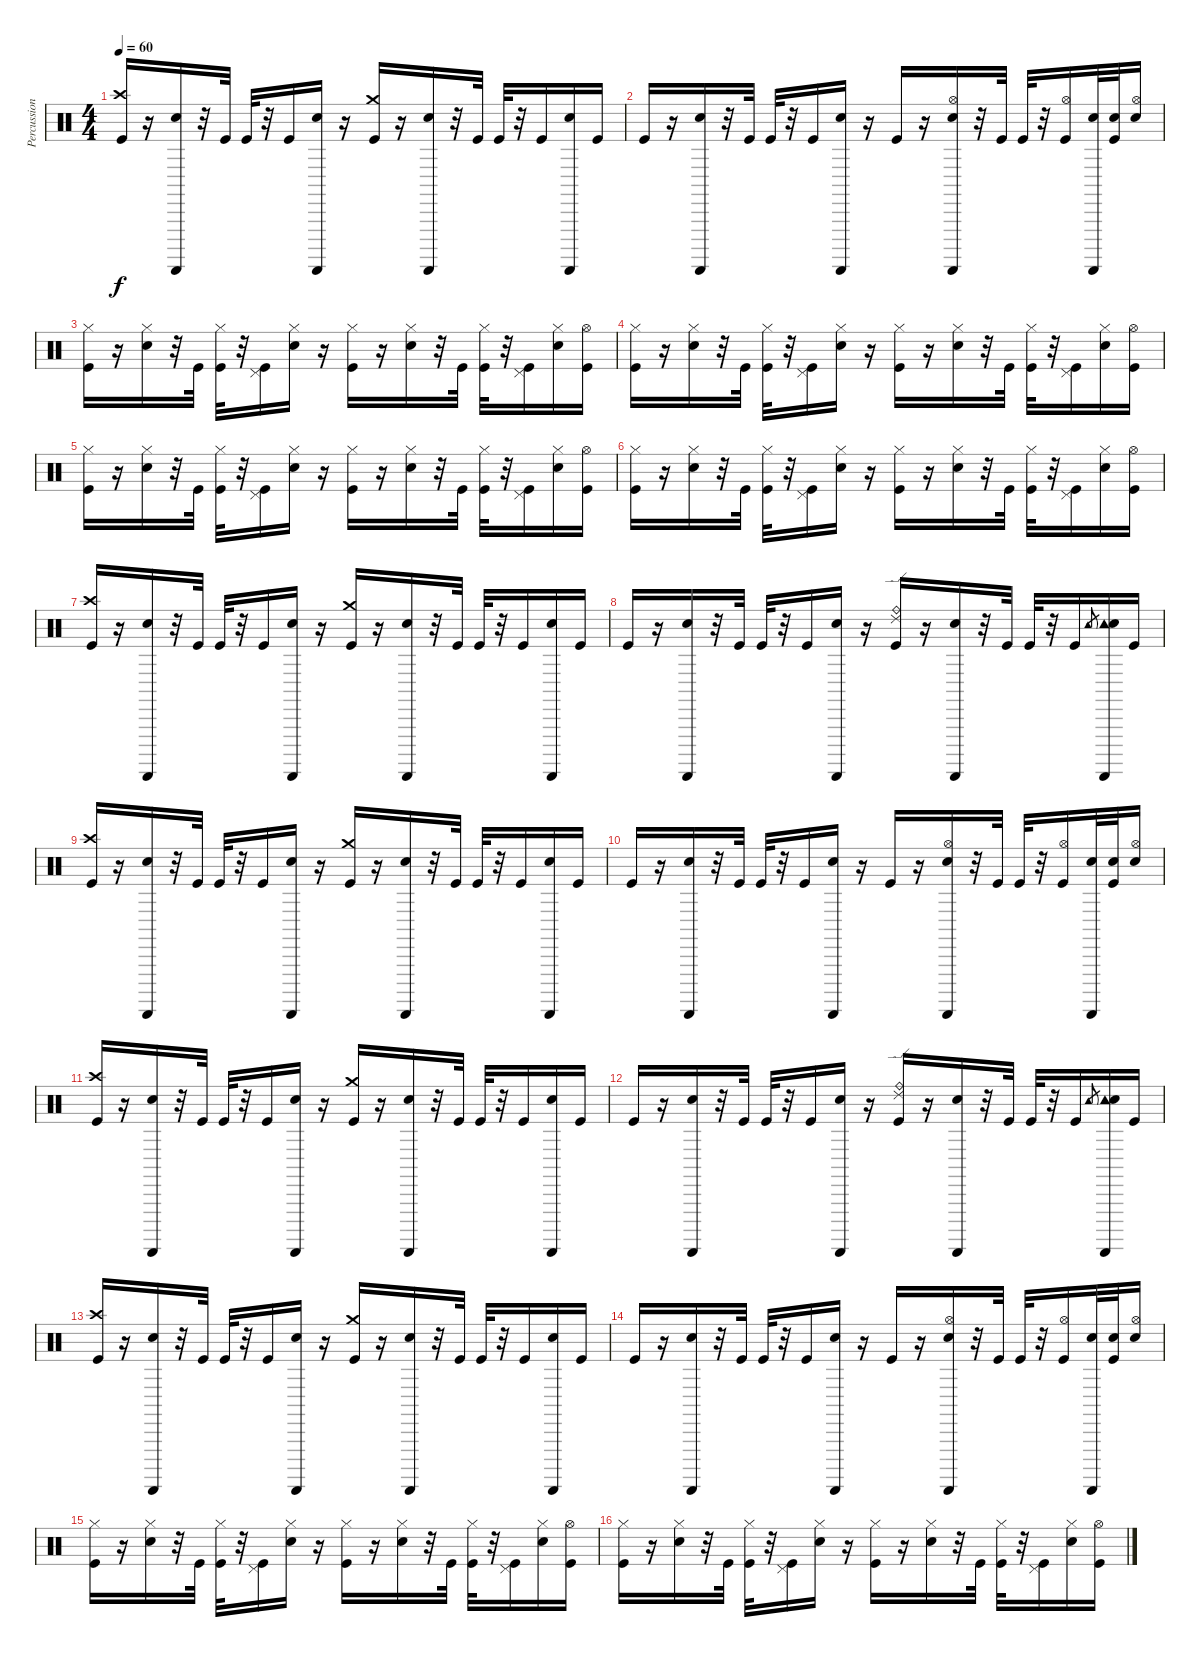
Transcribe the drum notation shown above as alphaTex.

\track ("Percussions" "Percussion") {instrument percussion}
\staff {score}
\articulation defaults
\ts (4 4)
\tempo 60
\clef neutral
\ks c
("Crash high (hit)" "Kick (hit)").16{dy f} r.16 ("Guiro (scrap-return)" "Electric Snare (hit)").16 r.32 "Kick (hit)".32 "Kick (hit)".32 r.32 "Kick (hit)".16 ("Guiro (scrap-return)" "Electric Snare (hit)").16 r.16 ("Crash medium (hit)" "Kick (hit)").16 r.16 ("Guiro (scrap-return)" "Electric Snare (hit)").16 r.32 "Kick (hit)".32 "Kick (hit)".32 r.32 "Kick (hit)".16 ("Guiro (scrap-return)" "Electric Snare (hit)").16 "Kick (hit)".16 |
"Kick (hit)".16 r.16 ("Guiro (scrap-return)" "Electric Snare (hit)").16 r.32 "Kick (hit)".32 "Kick (hit)".32 r.32 "Kick (hit)".16 ("Guiro (scrap-return)" "Electric Snare (hit)").16 r.16 "Kick (hit)".16 r.16 ("Hi-Hat (open)" "Guiro (scrap-return)" "Electric Snare (hit)").16 r.32 "Kick (hit)".32 "Kick (hit)".32 r.32 ("Hi-Hat (open)" "Kick (hit)").16 ("Guiro (scrap-return)" "Electric Snare (hit)").32 ("Electric Snare (hit)" "Kick (hit)").32 ("Hi-Hat (open)" "Snare (hit) 2").16 |
("Hi-Hat (closed)" "Kick (hit)").16 r.16 ("Hi-Hat (closed)" "Electric Snare (hit)").16 r.32 "Kick (hit)".32 ("Hi-Hat (closed)" "Kick (hit)").32 r.32 ("Pedal Hi-Hat (hit)" "Kick (hit)").16 ("Hi-Hat (closed)" "Electric Snare (hit)").16 r.16 ("Hi-Hat (closed)" "Kick (hit)").16 r.16 ("Hi-Hat (closed)" "Electric Snare (hit)").16 r.32 "Kick (hit)".32 ("Hi-Hat (closed)" "Kick (hit)").32 r.32 ("Pedal Hi-Hat (hit)" "Kick (hit)").16 ("Hi-Hat (closed)" "Electric Snare (hit)").16 ("Hi-Hat (open)" "Kick (hit)").16 |
("Hi-Hat (closed)" "Kick (hit)").16 r.16 ("Hi-Hat (closed)" "Electric Snare (hit)").16 r.32 "Kick (hit)".32 ("Hi-Hat (closed)" "Kick (hit)").32 r.32 ("Pedal Hi-Hat (hit)" "Kick (hit)").16 ("Hi-Hat (closed)" "Electric Snare (hit)").16 r.16 ("Hi-Hat (closed)" "Kick (hit)").16 r.16 ("Hi-Hat (closed)" "Electric Snare (hit)").16 r.32 "Kick (hit)".32 ("Hi-Hat (closed)" "Kick (hit)").32 r.32 ("Pedal Hi-Hat (hit)" "Kick (hit)").16 ("Hi-Hat (closed)" "Electric Snare (hit)").16 ("Hi-Hat (open)" "Kick (hit)").16 |
("Hi-Hat (closed)" "Kick (hit)").16 r.16 ("Hi-Hat (closed)" "Electric Snare (hit)").16 r.32 "Kick (hit)".32 ("Hi-Hat (closed)" "Kick (hit)").32 r.32 ("Pedal Hi-Hat (hit)" "Kick (hit)").16 ("Hi-Hat (closed)" "Electric Snare (hit)").16 r.16 ("Hi-Hat (closed)" "Kick (hit)").16 r.16 ("Hi-Hat (closed)" "Electric Snare (hit)").16 r.32 "Kick (hit)".32 ("Hi-Hat (closed)" "Kick (hit)").32 r.32 ("Pedal Hi-Hat (hit)" "Kick (hit)").16 ("Hi-Hat (closed)" "Electric Snare (hit)").16 ("Hi-Hat (open)" "Kick (hit)").16 |
("Hi-Hat (closed)" "Kick (hit)").16 r.16 ("Hi-Hat (closed)" "Electric Snare (hit)").16 r.32 "Kick (hit)".32 ("Hi-Hat (closed)" "Kick (hit)").32 r.32 ("Pedal Hi-Hat (hit)" "Kick (hit)").16 ("Hi-Hat (closed)" "Electric Snare (hit)").16 r.16 ("Hi-Hat (closed)" "Kick (hit)").16 r.16 ("Hi-Hat (closed)" "Electric Snare (hit)").16 r.32 "Kick (hit)".32 ("Hi-Hat (closed)" "Kick (hit)").32 r.32 ("Pedal Hi-Hat (hit)" "Kick (hit)").16 ("Hi-Hat (closed)" "Electric Snare (hit)").16 ("Hi-Hat (open)" "Kick (hit)").16 |
("Crash high (hit)" "Kick (hit)").16 r.16 ("Guiro (scrap-return)" "Electric Snare (hit)").16 r.32 "Kick (hit)".32 "Kick (hit)".32 r.32 "Kick (hit)".16 ("Guiro (scrap-return)" "Electric Snare (hit)").16 r.16 ("Crash medium (hit)" "Kick (hit)").16 r.16 ("Guiro (scrap-return)" "Electric Snare (hit)").16 r.32 "Kick (hit)".32 "Kick (hit)".32 r.32 "Kick (hit)".16 ("Guiro (scrap-return)" "Electric Snare (hit)").16 "Kick (hit)".16 |
"Kick (hit)".16 r.16 ("Guiro (scrap-return)" "Electric Snare (hit)").16 r.32 "Kick (hit)".32 "Kick (hit)".32 r.32 "Kick (hit)".16 ("Guiro (scrap-return)" "Electric Snare (hit)").16 r.16 ("Ride (bell)" "Ride (edge) 2" "Kick (hit)").16 r.16 ("Guiro (scrap-return)" "Electric Snare (hit)").16 r.32 "Kick (hit)".32 "Kick (hit)".32 r.32 "Kick (hit)".16 "Tambourine (hit)".8{gr} ("Tambourine (hit)" "Guiro (scrap-return)" "Electric Snare (hit)").16 "Kick (hit)".16 |
("Crash high (hit)" "Kick (hit)").16 r.16 ("Guiro (scrap-return)" "Electric Snare (hit)").16 r.32 "Kick (hit)".32 "Kick (hit)".32 r.32 "Kick (hit)".16 ("Guiro (scrap-return)" "Electric Snare (hit)").16 r.16 ("Crash medium (hit)" "Kick (hit)").16 r.16 ("Guiro (scrap-return)" "Electric Snare (hit)").16 r.32 "Kick (hit)".32 "Kick (hit)".32 r.32 "Kick (hit)".16 ("Guiro (scrap-return)" "Electric Snare (hit)").16 "Kick (hit)".16 |
"Kick (hit)".16 r.16 ("Guiro (scrap-return)" "Electric Snare (hit)").16 r.32 "Kick (hit)".32 "Kick (hit)".32 r.32 "Kick (hit)".16 ("Guiro (scrap-return)" "Electric Snare (hit)").16 r.16 "Kick (hit)".16 r.16 ("Hi-Hat (open)" "Guiro (scrap-return)" "Electric Snare (hit)").16 r.32 "Kick (hit)".32 "Kick (hit)".32 r.32 ("Hi-Hat (open)" "Kick (hit)").16 ("Guiro (scrap-return)" "Electric Snare (hit)").32 ("Electric Snare (hit)" "Kick (hit)").32 ("Hi-Hat (open)" "Snare (hit) 2").16 |
("Crash high (hit)" "Kick (hit)").16 r.16 ("Guiro (scrap-return)" "Electric Snare (hit)").16 r.32 "Kick (hit)".32 "Kick (hit)".32 r.32 "Kick (hit)".16 ("Guiro (scrap-return)" "Electric Snare (hit)").16 r.16 ("Crash medium (hit)" "Kick (hit)").16 r.16 ("Guiro (scrap-return)" "Electric Snare (hit)").16 r.32 "Kick (hit)".32 "Kick (hit)".32 r.32 "Kick (hit)".16 ("Guiro (scrap-return)" "Electric Snare (hit)").16 "Kick (hit)".16 |
"Kick (hit)".16 r.16 ("Guiro (scrap-return)" "Electric Snare (hit)").16 r.32 "Kick (hit)".32 "Kick (hit)".32 r.32 "Kick (hit)".16 ("Guiro (scrap-return)" "Electric Snare (hit)").16 r.16 ("Ride (bell)" "Ride (edge) 2" "Kick (hit)").16 r.16 ("Guiro (scrap-return)" "Electric Snare (hit)").16 r.32 "Kick (hit)".32 "Kick (hit)".32 r.32 "Kick (hit)".16 "Tambourine (hit)".8{gr} ("Tambourine (hit)" "Guiro (scrap-return)" "Electric Snare (hit)").16 "Kick (hit)".16 |
("Crash high (hit)" "Kick (hit)").16 r.16 ("Guiro (scrap-return)" "Electric Snare (hit)").16 r.32 "Kick (hit)".32 "Kick (hit)".32 r.32 "Kick (hit)".16 ("Guiro (scrap-return)" "Electric Snare (hit)").16 r.16 ("Crash medium (hit)" "Kick (hit)").16 r.16 ("Guiro (scrap-return)" "Electric Snare (hit)").16 r.32 "Kick (hit)".32 "Kick (hit)".32 r.32 "Kick (hit)".16 ("Guiro (scrap-return)" "Electric Snare (hit)").16 "Kick (hit)".16 |
"Kick (hit)".16 r.16 ("Guiro (scrap-return)" "Electric Snare (hit)").16 r.32 "Kick (hit)".32 "Kick (hit)".32 r.32 "Kick (hit)".16 ("Guiro (scrap-return)" "Electric Snare (hit)").16 r.16 "Kick (hit)".16 r.16 ("Hi-Hat (open)" "Guiro (scrap-return)" "Electric Snare (hit)").16 r.32 "Kick (hit)".32 "Kick (hit)".32 r.32 ("Hi-Hat (open)" "Kick (hit)").16 ("Guiro (scrap-return)" "Electric Snare (hit)").32 ("Electric Snare (hit)" "Kick (hit)").32 ("Hi-Hat (open)" "Snare (hit) 2").16 |
("Hi-Hat (closed)" "Kick (hit)").16 r.16 ("Hi-Hat (closed)" "Electric Snare (hit)").16 r.32 "Kick (hit)".32 ("Hi-Hat (closed)" "Kick (hit)").32 r.32 ("Pedal Hi-Hat (hit)" "Kick (hit)").16 ("Hi-Hat (closed)" "Electric Snare (hit)").16 r.16 ("Hi-Hat (closed)" "Kick (hit)").16 r.16 ("Hi-Hat (closed)" "Electric Snare (hit)").16 r.32 "Kick (hit)".32 ("Hi-Hat (closed)" "Kick (hit)").32 r.32 ("Pedal Hi-Hat (hit)" "Kick (hit)").16 ("Hi-Hat (closed)" "Electric Snare (hit)").16 ("Hi-Hat (open)" "Kick (hit)").16 |
("Hi-Hat (closed)" "Kick (hit)").16 r.16 ("Hi-Hat (closed)" "Electric Snare (hit)").16 r.32 "Kick (hit)".32 ("Hi-Hat (closed)" "Kick (hit)").32 r.32 ("Pedal Hi-Hat (hit)" "Kick (hit)").16 ("Hi-Hat (closed)" "Electric Snare (hit)").16 r.16 ("Hi-Hat (closed)" "Kick (hit)").16 r.16 ("Hi-Hat (closed)" "Electric Snare (hit)").16 r.32 "Kick (hit)".32 ("Hi-Hat (closed)" "Kick (hit)").32 r.32 ("Pedal Hi-Hat (hit)" "Kick (hit)").16 ("Hi-Hat (closed)" "Electric Snare (hit)").16 ("Hi-Hat (open)" "Kick (hit)").16
